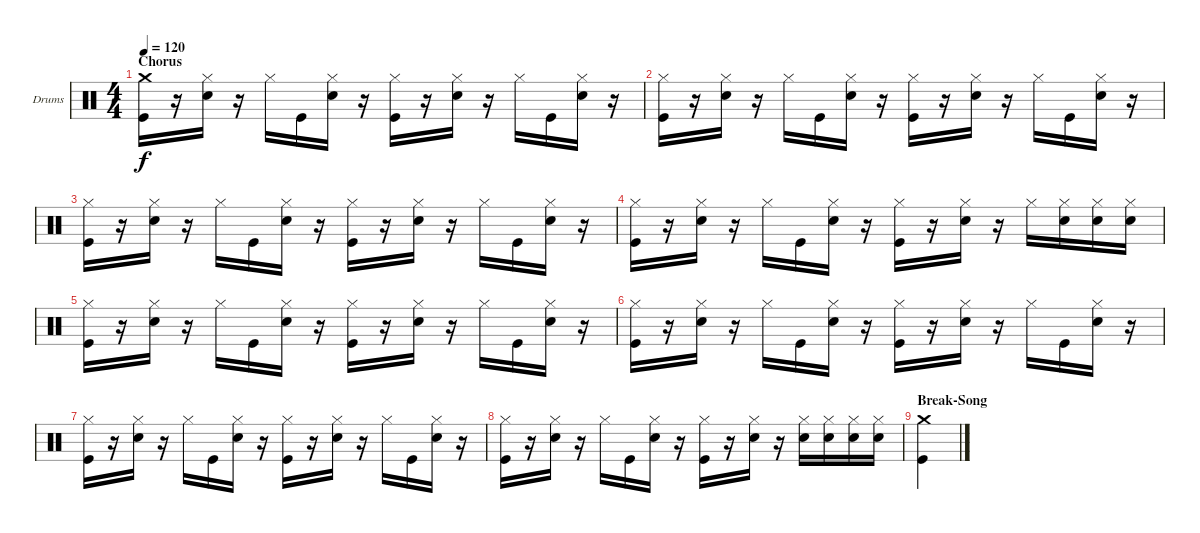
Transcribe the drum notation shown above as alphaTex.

\defaultSystemsLayout 4
\bracketExtendMode groupsimilarinstruments
\firstSystemTrackNameOrientation horizontal
\otherSystemsTrackNameOrientation horizontal
\track ("Jerinx" "Drums") {instrument percussion}
\staff {score}
\articulation defaults
\ts (4 4)
\section ("" "Chorus")
\tempo 120
\clef neutral
\ks c
("Kick (hit)" "Crash medium (hit)").16{dy f} r.16 ("Snare (hit) 2" "Hi-Hat (closed)").16 r.16 "Hi-Hat (closed)".16 "Kick (hit)".16 ("Snare (hit) 2" "Hi-Hat (closed)").16 r.16 ("Kick (hit)" "Hi-Hat (closed)").16 r.16 ("Snare (hit) 2" "Hi-Hat (closed)").16 r.16 "Hi-Hat (closed)".16 "Kick (hit)".16 ("Snare (hit) 2" "Hi-Hat (closed)").16 r.16 |
("Kick (hit)" "Hi-Hat (closed)").16 r.16 ("Snare (hit) 2" "Hi-Hat (closed)").16 r.16 "Hi-Hat (closed)".16 "Kick (hit)".16 ("Snare (hit) 2" "Hi-Hat (closed)").16 r.16 ("Kick (hit)" "Hi-Hat (closed)").16 r.16 ("Snare (hit) 2" "Hi-Hat (closed)").16 r.16 "Hi-Hat (closed)".16 "Kick (hit)".16 ("Snare (hit) 2" "Hi-Hat (closed)").16 r.16 |
("Kick (hit)" "Hi-Hat (closed)").16 r.16 ("Snare (hit) 2" "Hi-Hat (closed)").16 r.16 "Hi-Hat (closed)".16 "Kick (hit)".16 ("Snare (hit) 2" "Hi-Hat (closed)").16 r.16 ("Kick (hit)" "Hi-Hat (closed)").16 r.16 ("Snare (hit) 2" "Hi-Hat (closed)").16 r.16 "Hi-Hat (closed)".16 "Kick (hit)".16 ("Snare (hit) 2" "Hi-Hat (closed)").16 r.16 |
("Kick (hit)" "Hi-Hat (closed)").16 r.16 ("Snare (hit) 2" "Hi-Hat (closed)").16 r.16 "Hi-Hat (closed)".16 "Kick (hit)".16 ("Snare (hit) 2" "Hi-Hat (closed)").16 r.16 ("Kick (hit)" "Hi-Hat (closed)").16 r.16 ("Snare (hit) 2" "Hi-Hat (closed)").16 r.16 "Hi-Hat (closed)".16 ("Snare (hit) 2" "Hi-Hat (closed)").16 ("Snare (hit) 2" "Hi-Hat (closed)").16 ("Snare (hit) 2" "Hi-Hat (closed)").16 |
("Kick (hit)" "Hi-Hat (closed)").16 r.16 ("Snare (hit) 2" "Hi-Hat (closed)").16 r.16 "Hi-Hat (closed)".16 "Kick (hit)".16 ("Snare (hit) 2" "Hi-Hat (closed)").16 r.16 ("Kick (hit)" "Hi-Hat (closed)").16 r.16 ("Snare (hit) 2" "Hi-Hat (closed)").16 r.16 "Hi-Hat (closed)".16 "Kick (hit)".16 ("Snare (hit) 2" "Hi-Hat (closed)").16 r.16 |
("Kick (hit)" "Hi-Hat (closed)").16 r.16 ("Snare (hit) 2" "Hi-Hat (closed)").16 r.16 "Hi-Hat (closed)".16 "Kick (hit)".16 ("Snare (hit) 2" "Hi-Hat (closed)").16 r.16 ("Kick (hit)" "Hi-Hat (closed)").16 r.16 ("Snare (hit) 2" "Hi-Hat (closed)").16 r.16 "Hi-Hat (closed)".16 "Kick (hit)".16 ("Snare (hit) 2" "Hi-Hat (closed)").16 r.16 |
("Kick (hit)" "Hi-Hat (closed)").16 r.16 ("Snare (hit) 2" "Hi-Hat (closed)").16 r.16 "Hi-Hat (closed)".16 "Kick (hit)".16 ("Snare (hit) 2" "Hi-Hat (closed)").16 r.16 ("Kick (hit)" "Hi-Hat (closed)").16 r.16 ("Snare (hit) 2" "Hi-Hat (closed)").16 r.16 "Hi-Hat (closed)".16 "Kick (hit)".16 ("Snare (hit) 2" "Hi-Hat (closed)").16 r.16 |
("Kick (hit)" "Hi-Hat (closed)").16 r.16 ("Snare (hit) 2" "Hi-Hat (closed)").16 r.16 "Hi-Hat (closed)".16 "Kick (hit)".16 ("Snare (hit) 2" "Hi-Hat (closed)").16 r.16 ("Kick (hit)" "Hi-Hat (closed)").16 r.16 ("Snare (hit) 2" "Hi-Hat (closed)").16 r.16 ("Snare (hit) 2" "Hi-Hat (closed)").16 ("Snare (hit) 2" "Hi-Hat (closed)").16 ("Snare (hit) 2" "Hi-Hat (closed)").16 ("Snare (hit) 2" "Hi-Hat (closed)").16 |
\section ("" "Break-Song")
("Kick (hit)" "Crash medium (hit)").4
